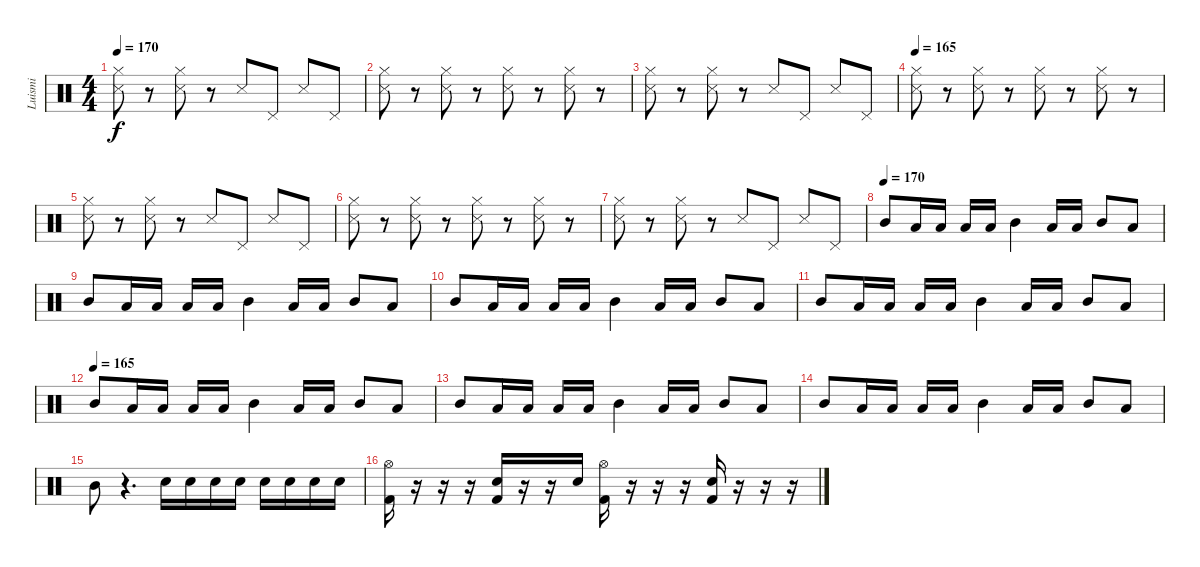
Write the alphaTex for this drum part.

\track ("Luismi" "Luismi") {instrument percussion}
\staff {score}
\articulation defaults
\ts (4 4)
\tempo 170
\clef neutral
\ks c
("Snare (side stick) 3" "Hi-Hat (closed)").8{dy f} r.8 ("Snare (side stick) 3" "Hi-Hat (closed)").8 r.8 "Snare (side stick) 3".8 "Pedal Hi-Hat (hit)".8 "Snare (side stick) 3".8 "Pedal Hi-Hat (hit)".8 |
("Snare (side stick) 3" "Hi-Hat (closed)").8 r.8 ("Snare (side stick) 3" "Hi-Hat (closed)").8 r.8 ("Snare (side stick) 3" "Hi-Hat (closed)").8 r.8 ("Snare (side stick) 3" "Hi-Hat (closed)").8 r.8 |
("Snare (side stick) 3" "Hi-Hat (closed)").8 r.8 ("Snare (side stick) 3" "Hi-Hat (closed)").8 r.8 "Snare (side stick) 3".8 "Pedal Hi-Hat (hit)".8 "Snare (side stick) 3".8 "Pedal Hi-Hat (hit)".8 |
\tempo 165
("Snare (side stick) 3" "Hi-Hat (closed)").8 r.8 ("Snare (side stick) 3" "Hi-Hat (closed)").8 r.8 ("Snare (side stick) 3" "Hi-Hat (closed)").8 r.8 ("Snare (side stick) 3" "Hi-Hat (closed)").8 r.8 |
("Snare (side stick) 3" "Hi-Hat (closed)").8 r.8 ("Snare (side stick) 3" "Hi-Hat (closed)").8 r.8 "Snare (side stick) 3".8 "Pedal Hi-Hat (hit)".8 "Snare (side stick) 3".8 "Pedal Hi-Hat (hit)".8 |
("Snare (side stick) 3" "Hi-Hat (closed)").8 r.8 ("Snare (side stick) 3" "Hi-Hat (closed)").8 r.8 ("Snare (side stick) 3" "Hi-Hat (closed)").8 r.8 ("Snare (side stick) 3" "Hi-Hat (closed)").8 r.8 |
("Snare (side stick) 3" "Hi-Hat (closed)").8 r.8 ("Snare (side stick) 3" "Hi-Hat (closed)").8 r.8 "Snare (side stick) 3".8 "Pedal Hi-Hat (hit)".8 "Snare (side stick) 3".8 "Pedal Hi-Hat (hit)".8 |
\tempo (170)
"Mid Tom (hit)".8 "Low Tom (hit)".16 "Low Tom (hit)".16 "Low Tom (hit)".16 "Low Tom (hit)".16 "Mid Tom (hit)".4 "Low Tom (hit)".16 "Low Tom (hit)".16 "Mid Tom (hit)".8 "Low Tom (hit)".8 |
"Mid Tom (hit)".8 "Low Tom (hit)".16 "Low Tom (hit)".16 "Low Tom (hit)".16 "Low Tom (hit)".16 "Mid Tom (hit)".4 "Low Tom (hit)".16 "Low Tom (hit)".16 "Mid Tom (hit)".8 "Low Tom (hit)".8 |
"Mid Tom (hit)".8 "Low Tom (hit)".16 "Low Tom (hit)".16 "Low Tom (hit)".16 "Low Tom (hit)".16 "Mid Tom (hit)".4 "Low Tom (hit)".16 "Low Tom (hit)".16 "Mid Tom (hit)".8 "Low Tom (hit)".8 |
"Mid Tom (hit)".8 "Low Tom (hit)".16 "Low Tom (hit)".16 "Low Tom (hit)".16 "Low Tom (hit)".16 "Mid Tom (hit)".4 "Low Tom (hit)".16 "Low Tom (hit)".16 "Mid Tom (hit)".8 "Low Tom (hit)".8 |
\tempo (165)
"Mid Tom (hit)".8 "Low Tom (hit)".16 "Low Tom (hit)".16 "Low Tom (hit)".16 "Low Tom (hit)".16 "Mid Tom (hit)".4 "Low Tom (hit)".16 "Low Tom (hit)".16 "Mid Tom (hit)".8 "Low Tom (hit)".8 |
"Mid Tom (hit)".8 "Low Tom (hit)".16 "Low Tom (hit)".16 "Low Tom (hit)".16 "Low Tom (hit)".16 "Mid Tom (hit)".4 "Low Tom (hit)".16 "Low Tom (hit)".16 "Mid Tom (hit)".8 "Low Tom (hit)".8 |
"Mid Tom (hit)".8 "Low Tom (hit)".16 "Low Tom (hit)".16 "Low Tom (hit)".16 "Low Tom (hit)".16 "Mid Tom (hit)".4 "Low Tom (hit)".16 "Low Tom (hit)".16 "Mid Tom (hit)".8 "Low Tom (hit)".8 |
"Mid Tom (hit)".8 r.4{d} "Electric Snare (hit)".16 "Electric Snare (hit)".16 "Electric Snare (hit)".16 "Electric Snare (hit)".16 "Electric Snare (hit)".16 "Electric Snare (hit)".16 "Electric Snare (hit)".16 "Electric Snare (hit)".16 |
("Kick (hit) 2" "Hi-Hat (open)").16 r.16 r.16 r.16 ("Kick (hit) 2" "Electric Snare (hit)").16 r.16 r.16 "Electric Snare (hit)".16 ("Kick (hit) 2" "Hi-Hat (open)").16 r.16 r.16 r.16 ("Kick (hit) 2" "Electric Snare (hit)").16 r.16 r.16 r.16
